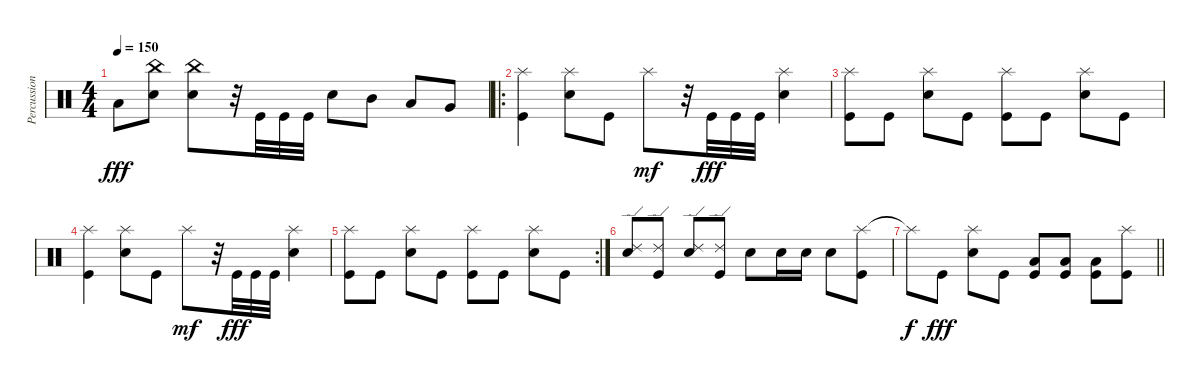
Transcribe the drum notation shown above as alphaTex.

\track ("Percussion" "Percussion") {instrument percussion}
\staff {score}
\articulation defaults
\ts (4 4)
\tempo 150
\clef neutral
\ks c "Low Floor Tom (hit)".8{dy fff}
("China (hit)" "Electric Snare (hit)").8 ("China (hit)" "Electric Snare (hit)").8 r.32 "Kick (hit)".32 "Kick (hit)".32 "Kick (hit)".32 "Electric Snare (hit)".8 "Mid Tom (hit)".8 "Low Tom (hit)".8 "Very Low Tom (hit)".8 |
\ro
("Splash (hit)" "Kick (hit)").4 ("Splash (hit)" "Electric Snare (hit)").8 "Kick (hit)".8 "Splash (hit)".8{dy mf} r.32 "Kick (hit)".32{dy fff} "Kick (hit)".32 "Kick (hit)".32 ("Splash (hit)" "Electric Snare (hit)").4 |
("Splash (hit)" "Kick (hit)").8 "Kick (hit)".8 ("Splash (hit)" "Electric Snare (hit)").8 "Kick (hit)".8 ("Splash (hit)" "Kick (hit)").8 "Kick (hit)".8 ("Splash (hit)" "Electric Snare (hit)").8 "Kick (hit)".8 |
("Splash (hit)" "Kick (hit)").4 ("Splash (hit)" "Electric Snare (hit)").8 "Kick (hit)".8 "Splash (hit)".8{dy mf} r.32 "Kick (hit)".32{dy fff} "Kick (hit)".32 "Kick (hit)".32 ("Splash (hit)" "Electric Snare (hit)").4 |
\rc 2
("Splash (hit)" "Kick (hit)").8 "Kick (hit)".8 ("Splash (hit)" "Electric Snare (hit)").8 "Kick (hit)".8 ("Splash (hit)" "Kick (hit)").8 "Kick (hit)".8 ("Splash (hit)" "Electric Snare (hit)").8 "Kick (hit)".8 |
("Ride (edge) 2" "Electric Snare (hit)").8 ("Ride (edge) 2" "Kick (hit)").8 ("Ride (edge) 2" "Electric Snare (hit)").8 ("Ride (edge) 2" "Kick (hit)").8 "Electric Snare (hit)".8 "Electric Snare (hit)".16 "Electric Snare (hit)".16 "Electric Snare (hit)".8 ("Splash (hit)" "Kick (hit)").8 |
\barLineRight lightlight "Splash (hit)"{t}.8{dy f} "Kick (hit)".8{dy fff}
("Splash (hit)" "Electric Snare (hit)").8 "Kick (hit)".8 ("Low Floor Tom (hit)" "Kick (hit)").8 ("Low Floor Tom (hit)" "Kick (hit)").8 ("Low Floor Tom (hit)" "Kick (hit)").8 ("Splash (hit)" "Kick (hit)").8
